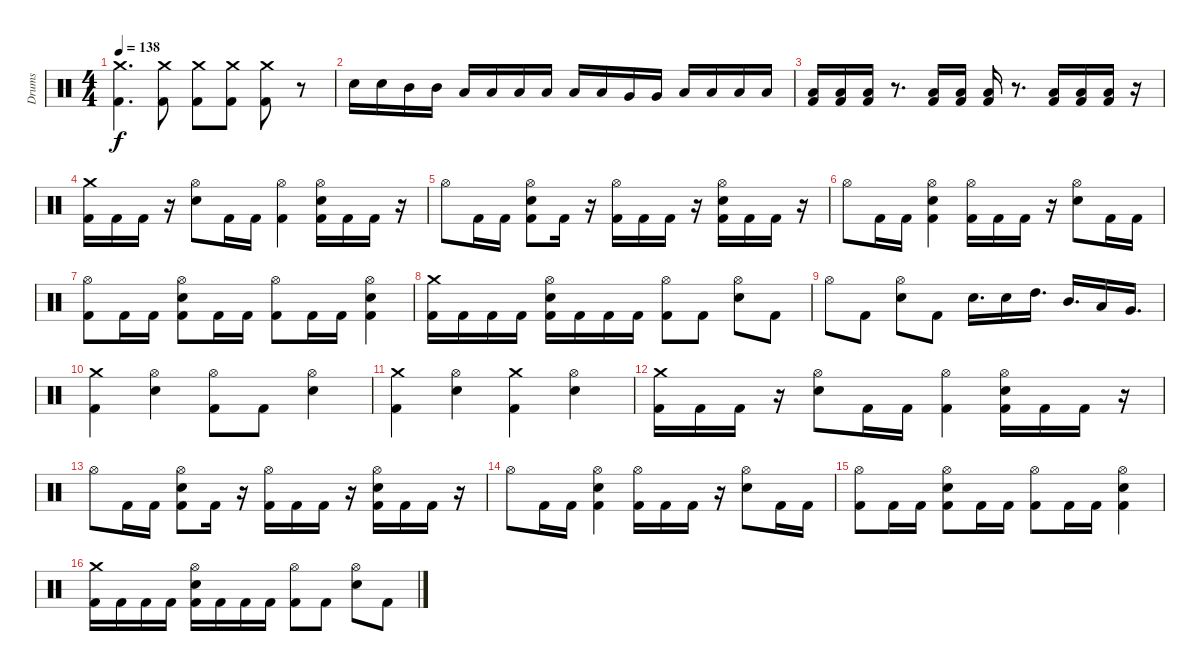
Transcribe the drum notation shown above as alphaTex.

\track ("Drums" "Drums") {instrument percussion}
\staff {score}
\articulation defaults
\ts (4 4)
\tempo 138
\clef neutral
\ks c
("Crash medium (hit)" "Kick (hit) 2").4{d dy f} ("Crash medium (hit)" "Kick (hit) 2").8 ("Crash medium (hit)" "Kick (hit) 2").8 ("Crash medium (hit)" "Kick (hit) 2").8 ("Crash medium (hit)" "Kick (hit) 2").8 r.8 |
"Electric Snare (hit)".16 "Electric Snare (hit)".16 "Mid Tom (hit)".16 "Mid Tom (hit)".16 "Low Tom (hit)".16 "Low Tom (hit)".16 "Low Floor Tom (hit)".16 "Low Floor Tom (hit)".16 "Low Tom (hit)".16 "Low Tom (hit)".16 "Very Low Tom (hit)".16 "Very Low Tom (hit)".16 "Low Floor Tom (hit)".16 "Low Floor Tom (hit)".16 "Low Floor Tom (hit)".16 "Low Floor Tom (hit)".16 |
("Low Floor Tom (hit)" "Kick (hit) 2").16 ("Low Floor Tom (hit)" "Kick (hit) 2").16 ("Low Floor Tom (hit)" "Kick (hit) 2").16 r.8{d} ("Low Floor Tom (hit)" "Kick (hit) 2").16 ("Low Floor Tom (hit)" "Kick (hit) 2").16 ("Low Floor Tom (hit)" "Kick (hit) 2").16 r.8{d} ("Low Floor Tom (hit)" "Kick (hit) 2").16 ("Low Floor Tom (hit)" "Kick (hit) 2").16 ("Low Floor Tom (hit)" "Kick (hit) 2").16 r.16 |
("Crash medium (hit)" "Kick (hit) 2").16 "Kick (hit) 2".16 "Kick (hit) 2".16 r.16 ("Electric Snare (hit)" "Hi-Hat (open)").8 "Kick (hit) 2".16 "Kick (hit) 2".16 ("Hi-Hat (open)" "Kick (hit) 2").4 ("Electric Snare (hit)" "Hi-Hat (open)" "Kick (hit) 2").16 "Kick (hit) 2".16 "Kick (hit) 2".16 r.16 |
"Hi-Hat (open)".8 "Kick (hit) 2".16 "Kick (hit) 2".16 ("Electric Snare (hit)" "Hi-Hat (open)" "Kick (hit) 2").8 "Kick (hit) 2".16 r.16 ("Hi-Hat (open)" "Kick (hit) 2").16 "Kick (hit) 2".16 "Kick (hit) 2".16 r.16 ("Electric Snare (hit)" "Hi-Hat (open)" "Kick (hit) 2").16 "Kick (hit) 2".16 "Kick (hit) 2".16 r.16 |
"Hi-Hat (open)".8 "Kick (hit) 2".16 "Kick (hit) 2".16 ("Hi-Hat (open)" "Electric Snare (hit)" "Kick (hit) 2").4 ("Hi-Hat (open)" "Kick (hit) 2").16 "Kick (hit) 2".16 "Kick (hit) 2".16 r.16 ("Hi-Hat (open)" "Electric Snare (hit)").8 "Kick (hit) 2".16 "Kick (hit) 2".16 |
("Hi-Hat (open)" "Kick (hit) 2").8 "Kick (hit) 2".16 "Kick (hit) 2".16 ("Electric Snare (hit)" "Hi-Hat (open)" "Kick (hit) 2").8 "Kick (hit) 2".16 "Kick (hit) 2".16 ("Hi-Hat (open)" "Kick (hit) 2").8 "Kick (hit) 2".16 "Kick (hit) 2".16 ("Electric Snare (hit)" "Hi-Hat (open)" "Kick (hit) 2").4 |
("Crash medium (hit)" "Kick (hit) 2").16 "Kick (hit) 2".16 "Kick (hit) 2".16 "Kick (hit) 2".16 ("Hi-Hat (open)" "Electric Snare (hit)" "Kick (hit) 2").16 "Kick (hit) 2".16 "Kick (hit) 2".16 "Kick (hit) 2".16 ("Hi-Hat (open)" "Kick (hit) 2").8 "Kick (hit) 2".8 ("Hi-Hat (open)" "Electric Snare (hit)").8 "Kick (hit) 2".8 |
"Hi-Hat (open)".8 "Kick (hit) 2".8 ("Hi-Hat (open)" "Electric Snare (hit)").8 "Kick (hit) 2".8 "Electric Snare (hit)".16{d} "Electric Snare (hit)".16 "High Tom (hit)".16{d} "Mid Tom (hit)".16{d} "Low Tom (hit)".16 "Very Low Tom (hit)".16{d} |
("Crash medium (hit)" "Kick (hit) 2").4 ("Hi-Hat (open)" "Electric Snare (hit)").4 ("Hi-Hat (open)" "Kick (hit) 2").8 "Kick (hit) 2".8 ("Hi-Hat (open)" "Electric Snare (hit)").4 |
("Crash medium (hit)" "Kick (hit) 2").4 ("Hi-Hat (open)" "Electric Snare (hit)").4 ("Crash medium (hit)" "Kick (hit) 2").4 ("Hi-Hat (open)" "Electric Snare (hit)").4 |
("Crash medium (hit)" "Kick (hit) 2").16 "Kick (hit) 2".16 "Kick (hit) 2".16 r.16 ("Electric Snare (hit)" "Hi-Hat (open)").8 "Kick (hit) 2".16 "Kick (hit) 2".16 ("Hi-Hat (open)" "Kick (hit) 2").4 ("Electric Snare (hit)" "Hi-Hat (open)" "Kick (hit) 2").16 "Kick (hit) 2".16 "Kick (hit) 2".16 r.16 |
"Hi-Hat (open)".8 "Kick (hit) 2".16 "Kick (hit) 2".16 ("Electric Snare (hit)" "Hi-Hat (open)" "Kick (hit) 2").8 "Kick (hit) 2".16 r.16 ("Hi-Hat (open)" "Kick (hit) 2").16 "Kick (hit) 2".16 "Kick (hit) 2".16 r.16 ("Electric Snare (hit)" "Hi-Hat (open)" "Kick (hit) 2").16 "Kick (hit) 2".16 "Kick (hit) 2".16 r.16 |
"Hi-Hat (open)".8 "Kick (hit) 2".16 "Kick (hit) 2".16 ("Hi-Hat (open)" "Electric Snare (hit)" "Kick (hit) 2").4 ("Hi-Hat (open)" "Kick (hit) 2").16 "Kick (hit) 2".16 "Kick (hit) 2".16 r.16 ("Hi-Hat (open)" "Electric Snare (hit)").8 "Kick (hit) 2".16 "Kick (hit) 2".16 |
("Hi-Hat (open)" "Kick (hit) 2").8 "Kick (hit) 2".16 "Kick (hit) 2".16 ("Electric Snare (hit)" "Hi-Hat (open)" "Kick (hit) 2").8 "Kick (hit) 2".16 "Kick (hit) 2".16 ("Hi-Hat (open)" "Kick (hit) 2").8 "Kick (hit) 2".16 "Kick (hit) 2".16 ("Electric Snare (hit)" "Hi-Hat (open)" "Kick (hit) 2").4 |
("Crash medium (hit)" "Kick (hit) 2").16 "Kick (hit) 2".16 "Kick (hit) 2".16 "Kick (hit) 2".16 ("Hi-Hat (open)" "Electric Snare (hit)" "Kick (hit) 2").16 "Kick (hit) 2".16 "Kick (hit) 2".16 "Kick (hit) 2".16 ("Hi-Hat (open)" "Kick (hit) 2").8 "Kick (hit) 2".8 ("Hi-Hat (open)" "Electric Snare (hit)").8 "Kick (hit) 2".8
